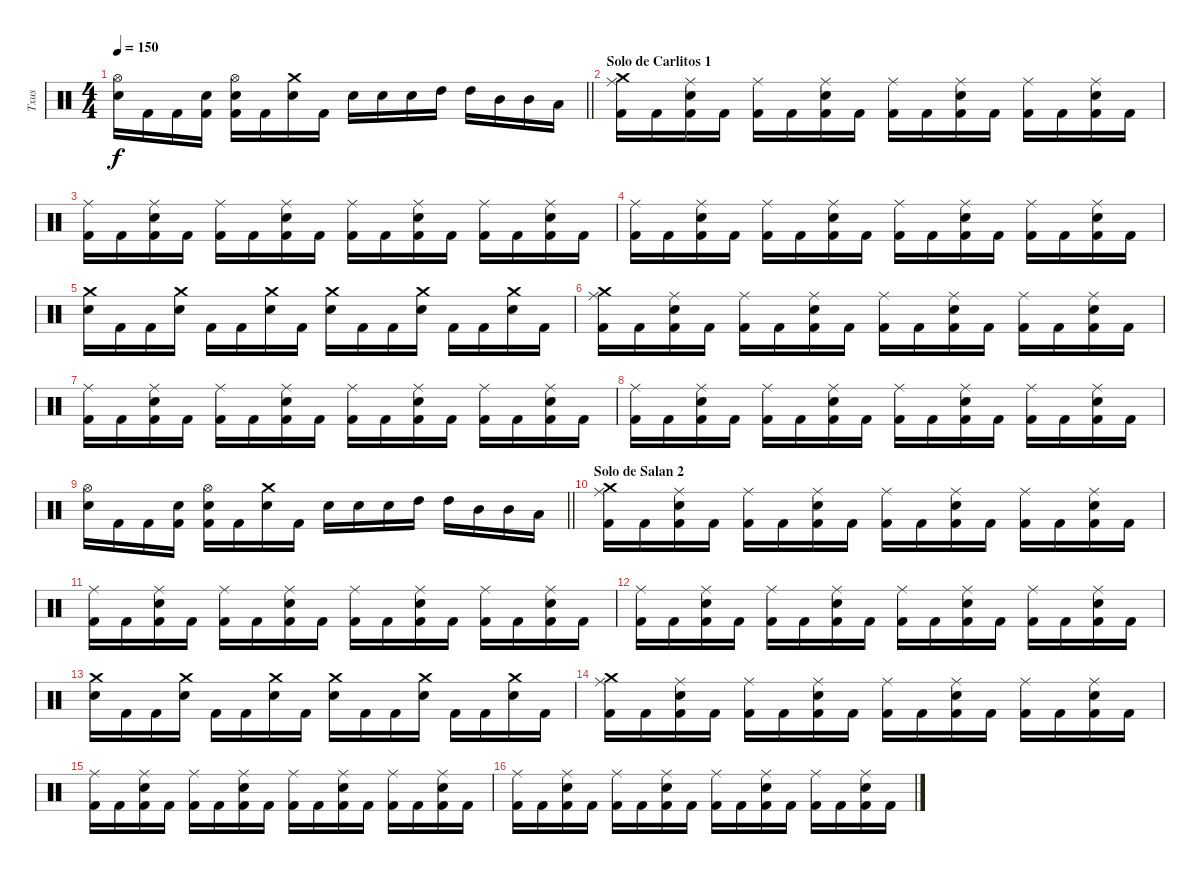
\track ("Txus" "Txus") {instrument percussion}
\staff {score}
\articulation defaults
\ts (4 4)
\tempo 150
\clef neutral
\barLineRight lightlight
\ks c
("Hi-Hat (open)" "Electric Snare (hit)").16{dy f} "Kick (hit) 2".16 "Kick (hit) 2".16 ("Electric Snare (hit)" "Kick (hit) 2").16 ("Hi-Hat (open)" "Electric Snare (hit)" "Kick (hit) 2").16 "Kick (hit) 2".16 ("Crash medium (hit)" "Electric Snare (hit)").16 "Kick (hit) 2".16 "Electric Snare (hit)".16 "Electric Snare (hit)".16 "Electric Snare (hit)".16 "High Tom (hit)".16 "High Tom (hit)".16 "Mid Tom (hit)".16 "Mid Tom (hit)".16 "Low Tom (hit)".16 |
\section ("" "Solo de Carlitos 1")
("Crash medium (hit)" "Ride (middle)" "Kick (hit) 2").16 "Kick (hit) 2".16 ("Ride (middle)" "Electric Snare (hit)" "Kick (hit) 2").16 "Kick (hit) 2".16 ("Ride (middle)" "Kick (hit) 2").16 "Kick (hit) 2".16 ("Ride (middle)" "Electric Snare (hit)" "Kick (hit) 2").16 "Kick (hit) 2".16 ("Ride (middle)" "Kick (hit) 2").16 "Kick (hit) 2".16 ("Ride (middle)" "Electric Snare (hit)" "Kick (hit) 2").16 "Kick (hit) 2".16 ("Ride (middle)" "Kick (hit) 2").16 "Kick (hit) 2".16 ("Ride (middle)" "Electric Snare (hit)" "Kick (hit) 2").16 "Kick (hit) 2".16 |
("Ride (middle)" "Kick (hit) 2").16 "Kick (hit) 2".16 ("Ride (middle)" "Electric Snare (hit)" "Kick (hit) 2").16 "Kick (hit) 2".16 ("Ride (middle)" "Kick (hit) 2").16 "Kick (hit) 2".16 ("Ride (middle)" "Electric Snare (hit)" "Kick (hit) 2").16 "Kick (hit) 2".16 ("Ride (middle)" "Kick (hit) 2").16 "Kick (hit) 2".16 ("Ride (middle)" "Electric Snare (hit)" "Kick (hit) 2").16 "Kick (hit) 2".16 ("Ride (middle)" "Kick (hit) 2").16 "Kick (hit) 2".16 ("Ride (middle)" "Electric Snare (hit)" "Kick (hit) 2").16 "Kick (hit) 2".16 |
("Ride (middle)" "Kick (hit) 2").16 "Kick (hit) 2".16 ("Ride (middle)" "Electric Snare (hit)" "Kick (hit) 2").16 "Kick (hit) 2".16 ("Ride (middle)" "Kick (hit) 2").16 "Kick (hit) 2".16 ("Ride (middle)" "Electric Snare (hit)" "Kick (hit) 2").16 "Kick (hit) 2".16 ("Ride (middle)" "Kick (hit) 2").16 "Kick (hit) 2".16 ("Ride (middle)" "Electric Snare (hit)" "Kick (hit) 2").16 "Kick (hit) 2".16 ("Ride (middle)" "Kick (hit) 2").16 "Kick (hit) 2".16 ("Ride (middle)" "Electric Snare (hit)" "Kick (hit) 2").16 "Kick (hit) 2".16 |
("Crash medium (hit)" "Electric Snare (hit)").16 "Kick (hit) 2".16 "Kick (hit) 2".16 ("Crash medium (hit)" "Electric Snare (hit)").16 "Kick (hit) 2".16 "Kick (hit) 2".16 ("Crash medium (hit)" "Electric Snare (hit)").16 "Kick (hit) 2".16 ("Crash medium (hit)" "Electric Snare (hit)").16 "Kick (hit) 2".16 "Kick (hit) 2".16 ("Crash medium (hit)" "Electric Snare (hit)").16 "Kick (hit) 2".16 "Kick (hit) 2".16 ("Crash medium (hit)" "Electric Snare (hit)").16 "Kick (hit) 2".16 |
("Crash medium (hit)" "Ride (middle)" "Kick (hit) 2").16 "Kick (hit) 2".16 ("Ride (middle)" "Electric Snare (hit)" "Kick (hit) 2").16 "Kick (hit) 2".16 ("Ride (middle)" "Kick (hit) 2").16 "Kick (hit) 2".16 ("Ride (middle)" "Electric Snare (hit)" "Kick (hit) 2").16 "Kick (hit) 2".16 ("Ride (middle)" "Kick (hit) 2").16 "Kick (hit) 2".16 ("Ride (middle)" "Electric Snare (hit)" "Kick (hit) 2").16 "Kick (hit) 2".16 ("Ride (middle)" "Kick (hit) 2").16 "Kick (hit) 2".16 ("Ride (middle)" "Electric Snare (hit)" "Kick (hit) 2").16 "Kick (hit) 2".16 |
("Ride (middle)" "Kick (hit) 2").16 "Kick (hit) 2".16 ("Ride (middle)" "Electric Snare (hit)" "Kick (hit) 2").16 "Kick (hit) 2".16 ("Ride (middle)" "Kick (hit) 2").16 "Kick (hit) 2".16 ("Ride (middle)" "Electric Snare (hit)" "Kick (hit) 2").16 "Kick (hit) 2".16 ("Ride (middle)" "Kick (hit) 2").16 "Kick (hit) 2".16 ("Ride (middle)" "Electric Snare (hit)" "Kick (hit) 2").16 "Kick (hit) 2".16 ("Ride (middle)" "Kick (hit) 2").16 "Kick (hit) 2".16 ("Ride (middle)" "Electric Snare (hit)" "Kick (hit) 2").16 "Kick (hit) 2".16 |
("Ride (middle)" "Kick (hit) 2").16 "Kick (hit) 2".16 ("Ride (middle)" "Electric Snare (hit)" "Kick (hit) 2").16 "Kick (hit) 2".16 ("Ride (middle)" "Kick (hit) 2").16 "Kick (hit) 2".16 ("Ride (middle)" "Electric Snare (hit)" "Kick (hit) 2").16 "Kick (hit) 2".16 ("Ride (middle)" "Kick (hit) 2").16 "Kick (hit) 2".16 ("Ride (middle)" "Electric Snare (hit)" "Kick (hit) 2").16 "Kick (hit) 2".16 ("Ride (middle)" "Kick (hit) 2").16 "Kick (hit) 2".16 ("Ride (middle)" "Electric Snare (hit)" "Kick (hit) 2").16 "Kick (hit) 2".16 |
\barLineRight lightlight
("Hi-Hat (open)" "Electric Snare (hit)").16 "Kick (hit) 2".16 "Kick (hit) 2".16 ("Electric Snare (hit)" "Kick (hit) 2").16 ("Hi-Hat (open)" "Electric Snare (hit)" "Kick (hit) 2").16 "Kick (hit) 2".16 ("Crash medium (hit)" "Electric Snare (hit)").16 "Kick (hit) 2".16 "Electric Snare (hit)".16 "Electric Snare (hit)".16 "Electric Snare (hit)".16 "High Tom (hit)".16 "High Tom (hit)".16 "Mid Tom (hit)".16 "Mid Tom (hit)".16 "Low Tom (hit)".16 |
\section ("" "Solo de Salan 2")
("Crash medium (hit)" "Ride (middle)" "Kick (hit) 2").16 "Kick (hit) 2".16 ("Ride (middle)" "Electric Snare (hit)" "Kick (hit) 2").16 "Kick (hit) 2".16 ("Ride (middle)" "Kick (hit) 2").16 "Kick (hit) 2".16 ("Ride (middle)" "Electric Snare (hit)" "Kick (hit) 2").16 "Kick (hit) 2".16 ("Ride (middle)" "Kick (hit) 2").16 "Kick (hit) 2".16 ("Ride (middle)" "Electric Snare (hit)" "Kick (hit) 2").16 "Kick (hit) 2".16 ("Ride (middle)" "Kick (hit) 2").16 "Kick (hit) 2".16 ("Ride (middle)" "Electric Snare (hit)" "Kick (hit) 2").16 "Kick (hit) 2".16 |
("Ride (middle)" "Kick (hit) 2").16 "Kick (hit) 2".16 ("Ride (middle)" "Electric Snare (hit)" "Kick (hit) 2").16 "Kick (hit) 2".16 ("Ride (middle)" "Kick (hit) 2").16 "Kick (hit) 2".16 ("Ride (middle)" "Electric Snare (hit)" "Kick (hit) 2").16 "Kick (hit) 2".16 ("Ride (middle)" "Kick (hit) 2").16 "Kick (hit) 2".16 ("Ride (middle)" "Electric Snare (hit)" "Kick (hit) 2").16 "Kick (hit) 2".16 ("Ride (middle)" "Kick (hit) 2").16 "Kick (hit) 2".16 ("Ride (middle)" "Electric Snare (hit)" "Kick (hit) 2").16 "Kick (hit) 2".16 |
("Ride (middle)" "Kick (hit) 2").16 "Kick (hit) 2".16 ("Ride (middle)" "Electric Snare (hit)" "Kick (hit) 2").16 "Kick (hit) 2".16 ("Ride (middle)" "Kick (hit) 2").16 "Kick (hit) 2".16 ("Ride (middle)" "Electric Snare (hit)" "Kick (hit) 2").16 "Kick (hit) 2".16 ("Ride (middle)" "Kick (hit) 2").16 "Kick (hit) 2".16 ("Ride (middle)" "Electric Snare (hit)" "Kick (hit) 2").16 "Kick (hit) 2".16 ("Ride (middle)" "Kick (hit) 2").16 "Kick (hit) 2".16 ("Ride (middle)" "Electric Snare (hit)" "Kick (hit) 2").16 "Kick (hit) 2".16 |
("Crash medium (hit)" "Electric Snare (hit)").16 "Kick (hit) 2".16 "Kick (hit) 2".16 ("Crash medium (hit)" "Electric Snare (hit)").16 "Kick (hit) 2".16 "Kick (hit) 2".16 ("Crash medium (hit)" "Electric Snare (hit)").16 "Kick (hit) 2".16 ("Crash medium (hit)" "Electric Snare (hit)").16 "Kick (hit) 2".16 "Kick (hit) 2".16 ("Crash medium (hit)" "Electric Snare (hit)").16 "Kick (hit) 2".16 "Kick (hit) 2".16 ("Crash medium (hit)" "Electric Snare (hit)").16 "Kick (hit) 2".16 |
("Crash medium (hit)" "Ride (middle)" "Kick (hit) 2").16 "Kick (hit) 2".16 ("Ride (middle)" "Electric Snare (hit)" "Kick (hit) 2").16 "Kick (hit) 2".16 ("Ride (middle)" "Kick (hit) 2").16 "Kick (hit) 2".16 ("Ride (middle)" "Electric Snare (hit)" "Kick (hit) 2").16 "Kick (hit) 2".16 ("Ride (middle)" "Kick (hit) 2").16 "Kick (hit) 2".16 ("Ride (middle)" "Electric Snare (hit)" "Kick (hit) 2").16 "Kick (hit) 2".16 ("Ride (middle)" "Kick (hit) 2").16 "Kick (hit) 2".16 ("Ride (middle)" "Electric Snare (hit)" "Kick (hit) 2").16 "Kick (hit) 2".16 |
("Ride (middle)" "Kick (hit) 2").16 "Kick (hit) 2".16 ("Ride (middle)" "Electric Snare (hit)" "Kick (hit) 2").16 "Kick (hit) 2".16 ("Ride (middle)" "Kick (hit) 2").16 "Kick (hit) 2".16 ("Ride (middle)" "Electric Snare (hit)" "Kick (hit) 2").16 "Kick (hit) 2".16 ("Ride (middle)" "Kick (hit) 2").16 "Kick (hit) 2".16 ("Ride (middle)" "Electric Snare (hit)" "Kick (hit) 2").16 "Kick (hit) 2".16 ("Ride (middle)" "Kick (hit) 2").16 "Kick (hit) 2".16 ("Ride (middle)" "Electric Snare (hit)" "Kick (hit) 2").16 "Kick (hit) 2".16 |
("Ride (middle)" "Kick (hit) 2").16 "Kick (hit) 2".16 ("Ride (middle)" "Electric Snare (hit)" "Kick (hit) 2").16 "Kick (hit) 2".16 ("Ride (middle)" "Kick (hit) 2").16 "Kick (hit) 2".16 ("Ride (middle)" "Electric Snare (hit)" "Kick (hit) 2").16 "Kick (hit) 2".16 ("Ride (middle)" "Kick (hit) 2").16 "Kick (hit) 2".16 ("Ride (middle)" "Electric Snare (hit)" "Kick (hit) 2").16 "Kick (hit) 2".16 ("Ride (middle)" "Kick (hit) 2").16 "Kick (hit) 2".16 ("Ride (middle)" "Electric Snare (hit)" "Kick (hit) 2").16 "Kick (hit) 2".16
